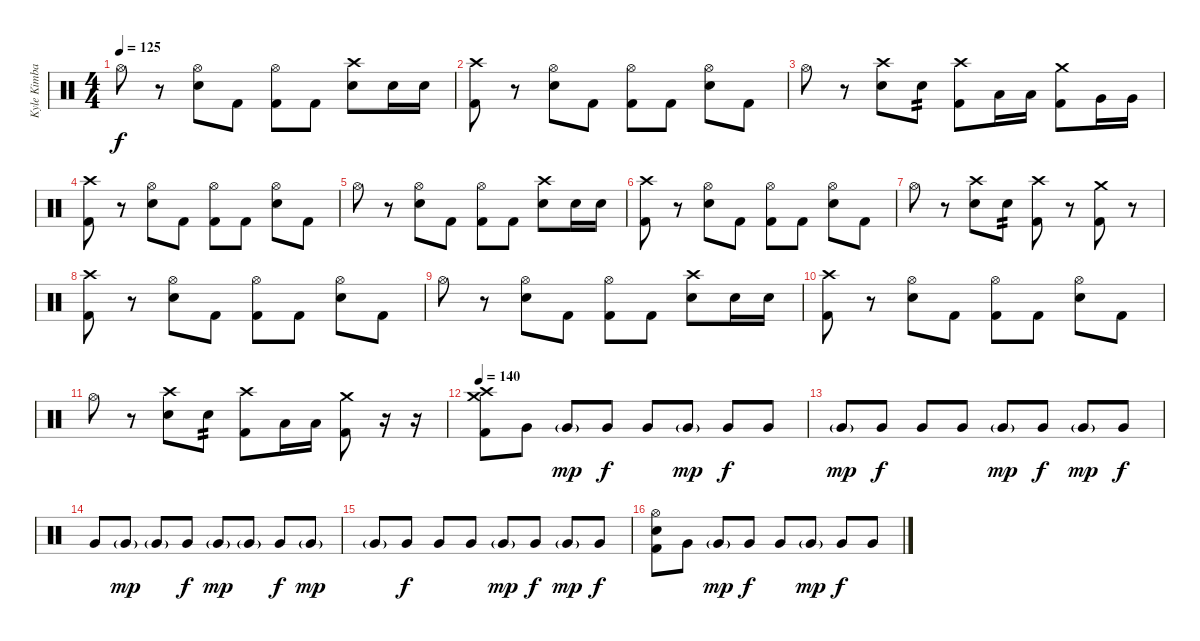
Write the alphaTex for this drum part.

\track ("Kyle Kimball" "Kyle Kimba") {instrument percussion}
\staff
\articulation defaults
\ts (4 4)
\tempo 125
\clef neutral
\ks c "Hi-Hat (open)".8{dy f}
r.8 ("Electric Snare (hit)" "Hi-Hat (open)").8 "Kick (hit) 2".8 ("Kick (hit) 2" "Hi-Hat (open)").8 "Kick (hit) 2".8 ("Electric Snare (hit)" "Crash high (hit)").8 "Electric Snare (hit)".16 "Electric Snare (hit)".16 |
("Kick (hit) 2" "Crash high (hit)").8 r.8 ("Electric Snare (hit)" "Hi-Hat (open)").8 "Kick (hit) 2".8 ("Kick (hit) 2" "Hi-Hat (open)").8 "Kick (hit) 2".8 ("Electric Snare (hit)" "Hi-Hat (open)").8 "Kick (hit) 2".8 |
"Hi-Hat (open)".8 r.8 ("Electric Snare (hit)" "Crash high (hit)").8 "Electric Snare (hit)".8{tp 2} ("Kick (hit) 2" "Crash high (hit)").8 "Low Tom (hit)".16 "Low Tom (hit)".16 ("Kick (hit) 2" "Crash medium (hit)").8 "Very Low Tom (hit)".16 "Very Low Tom (hit)".16 |
("Kick (hit) 2" "Crash high (hit)").8 r.8 ("Electric Snare (hit)" "Hi-Hat (open)").8 "Kick (hit) 2".8 ("Kick (hit) 2" "Hi-Hat (open)").8 "Kick (hit) 2".8 ("Electric Snare (hit)" "Hi-Hat (open)").8 "Kick (hit) 2".8 |
"Hi-Hat (open)".8 r.8 ("Electric Snare (hit)" "Hi-Hat (open)").8 "Kick (hit) 2".8 ("Kick (hit) 2" "Hi-Hat (open)").8 "Kick (hit) 2".8 ("Electric Snare (hit)" "Crash high (hit)").8 "Electric Snare (hit)".16 "Electric Snare (hit)".16 |
("Kick (hit) 2" "Crash high (hit)").8 r.8 ("Electric Snare (hit)" "Hi-Hat (open)").8 "Kick (hit) 2".8 ("Kick (hit) 2" "Hi-Hat (open)").8 "Kick (hit) 2".8 ("Electric Snare (hit)" "Hi-Hat (open)").8 "Kick (hit) 2".8 |
"Hi-Hat (open)".8 r.8 ("Electric Snare (hit)" "Crash high (hit)").8 "Electric Snare (hit)".8{tp 2} ("Kick (hit) 2" "Crash high (hit)").8 r.8 ("Kick (hit) 2" "Crash medium (hit)").8 r.8 |
("Kick (hit) 2" "Crash high (hit)").8 r.8 ("Electric Snare (hit)" "Hi-Hat (open)").8 "Kick (hit) 2".8 ("Kick (hit) 2" "Hi-Hat (open)").8 "Kick (hit) 2".8 ("Electric Snare (hit)" "Hi-Hat (open)").8 "Kick (hit) 2".8 |
"Hi-Hat (open)".8 r.8 ("Electric Snare (hit)" "Hi-Hat (open)").8 "Kick (hit) 2".8 ("Kick (hit) 2" "Hi-Hat (open)").8 "Kick (hit) 2".8 ("Electric Snare (hit)" "Crash high (hit)").8 "Electric Snare (hit)".16 "Electric Snare (hit)".16 |
("Kick (hit) 2" "Crash high (hit)").8 r.8 ("Electric Snare (hit)" "Hi-Hat (open)").8 "Kick (hit) 2".8 ("Kick (hit) 2" "Hi-Hat (open)").8 "Kick (hit) 2".8 ("Electric Snare (hit)" "Hi-Hat (open)").8 "Kick (hit) 2".8 |
"Hi-Hat (open)".8 r.8 ("Electric Snare (hit)" "Crash high (hit)").8 "Electric Snare (hit)".8{tp 2} ("Kick (hit) 2" "Crash high (hit)").8 "Low Tom (hit)".16 "Low Tom (hit)".16 ("Kick (hit) 2" "Crash medium (hit)").8 r.16 r.16 |
\tempo 140
("Kick (hit) 2" "Crash high (hit)" "Crash medium (hit)").8 "Very Low Tom (hit)".8 "Very Low Tom (hit)"{g}.8{dy mp} "Very Low Tom (hit)".8{dy f} "Very Low Tom (hit)".8 "Very Low Tom (hit)"{g}.8{dy mp} "Very Low Tom (hit)".8{dy f} "Very Low Tom (hit)".8 |
"Very Low Tom (hit)"{g}.8{dy mp} "Very Low Tom (hit)".8{dy f} "Very Low Tom (hit)".8 "Very Low Tom (hit)".8 "Very Low Tom (hit)"{g}.8{dy mp} "Very Low Tom (hit)".8{dy f} "Very Low Tom (hit)"{g}.8{dy mp} "Very Low Tom (hit)".8{dy f} |
"Very Low Tom (hit)".8 "Very Low Tom (hit)"{g}.8{dy mp} "Very Low Tom (hit)"{g}.8 "Very Low Tom (hit)".8{dy f} "Very Low Tom (hit)"{g}.8{dy mp} "Very Low Tom (hit)"{g}.8 "Very Low Tom (hit)".8{dy f} "Very Low Tom (hit)"{g}.8{dy mp} |
"Very Low Tom (hit)"{g}.8 "Very Low Tom (hit)".8{dy f} "Very Low Tom (hit)".8 "Very Low Tom (hit)".8 "Very Low Tom (hit)"{g}.8{dy mp} "Very Low Tom (hit)".8{dy f} "Very Low Tom (hit)"{g}.8{dy mp} "Very Low Tom (hit)".8{dy f} |
("Kick (hit) 2" "Electric Snare (hit)" "Hi-Hat (open)").8 "Very Low Tom (hit)".8 "Very Low Tom (hit)"{g}.8{dy mp} "Very Low Tom (hit)".8{dy f} "Very Low Tom (hit)".8 "Very Low Tom (hit)"{g}.8{dy mp} "Very Low Tom (hit)".8{dy f} "Very Low Tom (hit)".8
